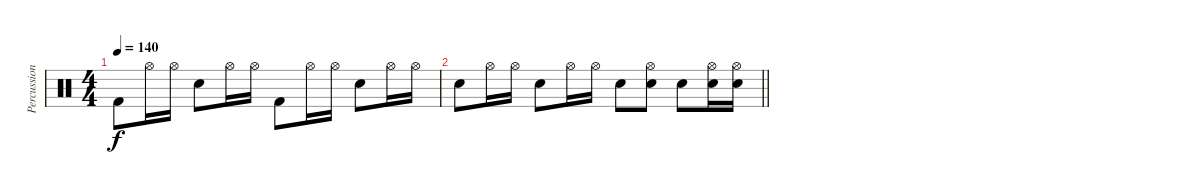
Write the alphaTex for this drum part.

\track ("Percussion" "Percussion") {instrument percussion}
\staff {score}
\articulation defaults
\ts (4 4)
\tempo 140
\clef neutral
\ks c "Kick (hit) 2".8{dy f} "Hi-Hat (open)".16 "Hi-Hat (open)".16 "Snare (hit) 2".8 "Hi-Hat (open)".16 "Hi-Hat (open)".16 "Kick (hit) 2".8 "Hi-Hat (open)".16 "Hi-Hat (open)".16 "Snare (hit) 2".8 "Hi-Hat (open)".16 "Hi-Hat (open)".16
|
\barLineRight lightlight "Snare (hit) 2".8 "Hi-Hat (open)".16 "Hi-Hat (open)".16 "Snare (hit) 2".8 "Hi-Hat (open)".16 "Hi-Hat (open)".16 "Snare (hit) 2".8
("Snare (hit) 2" "Hi-Hat (open)").8 "Snare (hit) 2".8 ("Snare (hit) 2" "Hi-Hat (open)").16 ("Snare (hit) 2" "Hi-Hat (open)").16
